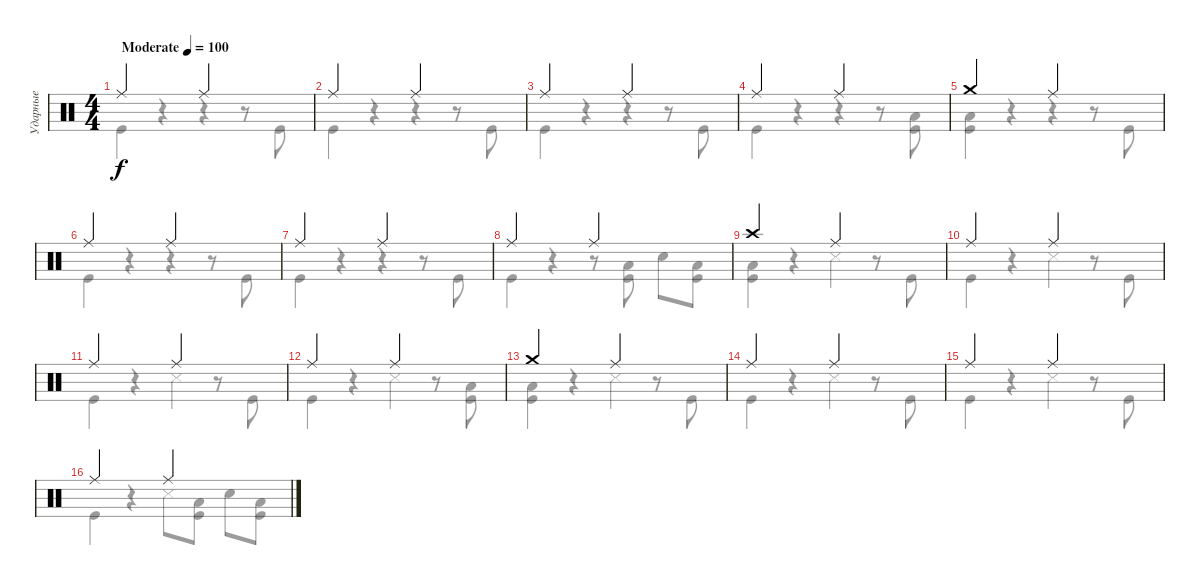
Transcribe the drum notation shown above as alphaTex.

\track ("Ударные" "Ударные") {instrument percussion}
\staff {score}
\articulation defaults
\voice
\ts (4 4)
\tempo (100 "Moderate")
\clef neutral
\ks c "Ride (middle)".2{dy f} "Ride (middle)".2
|
"Ride (middle)".2 "Ride (middle)".2 |
"Ride (middle)".2 "Ride (middle)".2 |
"Ride (middle)".2 "Ride (middle)".2 |
"Crash medium (hit)".2 "Ride (middle)".2 |
"Ride (middle)".2 "Ride (middle)".2 |
"Ride (middle)".2 "Ride (middle)".2 |
"Ride (middle)".2 "Ride (middle)".2 |
"Crash high (hit)".2 "Ride (middle)".2 |
"Ride (middle)".2 "Ride (middle)".2 |
"Ride (middle)".2 "Ride (middle)".2 |
"Ride (middle)".2 "Ride (middle)".2 |
"Crash medium (hit)".2 "Ride (middle)".2 |
"Ride (middle)".2 "Ride (middle)".2 |
"Ride (middle)".2 "Ride (middle)".2 |
"Ride (middle)".2 "Ride (middle)".2
\voice
\clef neutral
\ottava regular
\simile none
\ks c "Kick (hit)".4{dy f}
r.4 r.4 r.8 "Kick (hit)".8 |
"Kick (hit)".4 r.4 r.4 r.8 "Kick (hit)".8 |
"Kick (hit)".4 r.4 r.4 r.8 "Kick (hit)".8 |
"Kick (hit)".4 r.4 r.4 r.8 ("Low Floor Tom (hit)" "Kick (hit)").8 |
("Low Floor Tom (hit)" "Kick (hit)").4 r.4 r.4 r.8 "Kick (hit)".8 |
"Kick (hit)".4 r.4 r.4 r.8 "Kick (hit)".8 |
"Kick (hit)".4 r.4 r.4 r.8 "Kick (hit)".8 |
"Kick (hit)".4 r.4 r.8 ("Low Floor Tom (hit)" "Kick (hit)").8 "Snare (hit) 2".8 ("Low Floor Tom (hit)" "Kick (hit)").8 |
("Low Floor Tom (hit)" "Kick (hit)").4 r.4 "Snare (side stick) 3".4 r.8 "Kick (hit)".8 |
"Kick (hit)".4 r.4 "Snare (side stick) 3".4 r.8 "Kick (hit)".8 |
"Kick (hit)".4 r.4 "Snare (side stick) 3".4 r.8 "Kick (hit)".8 |
"Kick (hit)".4 r.4 "Snare (side stick) 3".4 r.8 ("Low Floor Tom (hit)" "Kick (hit)").8 |
("Low Floor Tom (hit)" "Kick (hit)").4 r.4 "Snare (side stick) 3".4 r.8 "Kick (hit)".8 |
"Kick (hit)".4 r.4 "Snare (side stick) 3".4 r.8 "Kick (hit)".8 |
"Kick (hit)".4 r.4 "Snare (side stick) 3".4 r.8 "Kick (hit)".8 |
"Kick (hit)".4 r.4 "Snare (side stick) 3".8 ("Low Floor Tom (hit)" "Kick (hit)").8 "Snare (hit) 2".8 ("Low Floor Tom (hit)" "Kick (hit)").8
